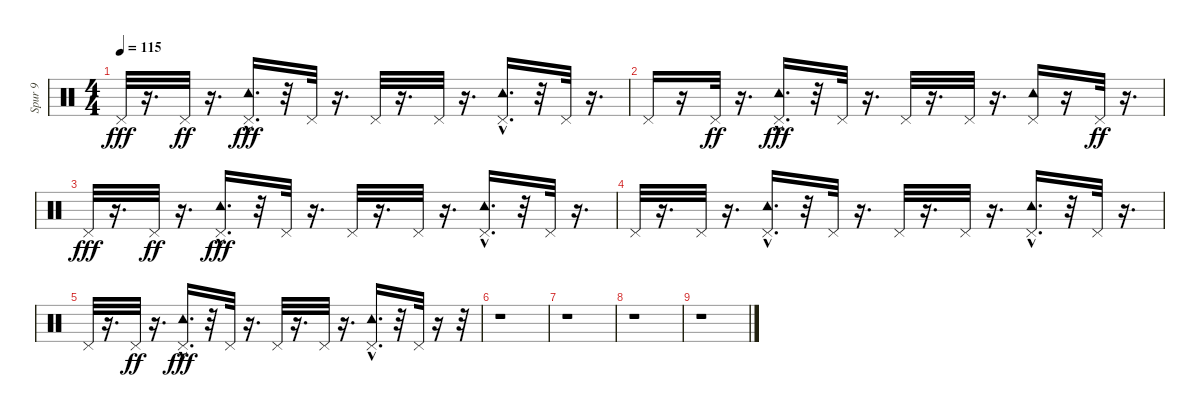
\track ("Spur 9" "Spur 9") {instrument percussion}
\staff {score}
\articulation defaults
\ts (4 4)
\tempo 115
\clef neutral
\ks c "Pedal Hi-Hat (hit)".32{dy fff}
r.16{d} "Pedal Hi-Hat (hit)".32{dy ff} r.16{d} ("Tambourine (hit)"{hac} "Pedal Hi-Hat (hit)").16{d dy fff} r.32 "Pedal Hi-Hat (hit)".32 r.16{d} "Pedal Hi-Hat (hit)".32 r.16{d} "Pedal Hi-Hat (hit)".32 r.16{d} ("Pedal Hi-Hat (hit)" "Tambourine (hit)"{hac}).16{d} r.32 "Pedal Hi-Hat (hit)".32 r.16{d} |
"Pedal Hi-Hat (hit)".16 r.16 "Pedal Hi-Hat (hit)".32{dy ff} r.16{d} ("Tambourine (hit)"{hac} "Pedal Hi-Hat (hit)").16{d dy fff} r.32 "Pedal Hi-Hat (hit)".32 r.16{d} "Pedal Hi-Hat (hit)".32 r.16{d} "Pedal Hi-Hat (hit)".32 r.16{d} ("Pedal Hi-Hat (hit)" "Tambourine (hit)").16 r.16 "Pedal Hi-Hat (hit)".32{dy ff} r.16{d} |
"Pedal Hi-Hat (hit)".32{dy fff} r.16{d} "Pedal Hi-Hat (hit)".32{dy ff} r.16{d} ("Tambourine (hit)"{hac} "Pedal Hi-Hat (hit)").16{d dy fff} r.32 "Pedal Hi-Hat (hit)".32 r.16{d} "Pedal Hi-Hat (hit)".32 r.16{d} "Pedal Hi-Hat (hit)".32 r.16{d} ("Pedal Hi-Hat (hit)" "Tambourine (hit)"{hac}).16{d} r.32 "Pedal Hi-Hat (hit)".32 r.16{d} |
"Pedal Hi-Hat (hit)".32 r.16{d} "Pedal Hi-Hat (hit)".32 r.16{d} ("Pedal Hi-Hat (hit)" "Tambourine (hit)"{hac}).16{d} r.32 "Pedal Hi-Hat (hit)".32 r.16{d} "Pedal Hi-Hat (hit)".32 r.16{d} "Pedal Hi-Hat (hit)".32 r.16{d} ("Pedal Hi-Hat (hit)" "Tambourine (hit)"{hac}).16{d} r.32 "Pedal Hi-Hat (hit)".32 r.16{d} |
"Pedal Hi-Hat (hit)".32 r.16{d} "Pedal Hi-Hat (hit)".32{dy ff} r.16{d} ("Tambourine (hit)"{hac} "Pedal Hi-Hat (hit)").16{d dy fff} r.32 "Pedal Hi-Hat (hit)".32 r.16{d} "Pedal Hi-Hat (hit)".32 r.16{d} "Pedal Hi-Hat (hit)".32 r.16{d} ("Pedal Hi-Hat (hit)" "Tambourine (hit)"{hac}).16{d} r.32 "Pedal Hi-Hat (hit)".32 r.16 r.32 |
r.1 |
r.1 |
r.1 |
r.1
